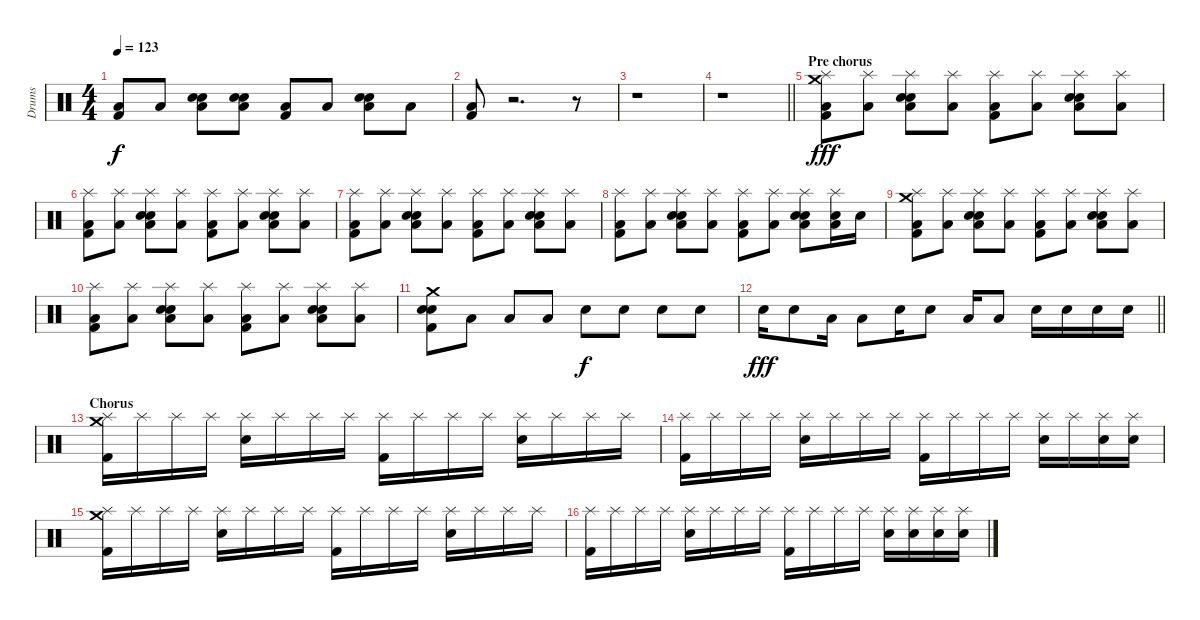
\track ("Drums" "Drums") {instrument percussion}
\staff {score}
\articulation defaults
\ts (4 4)
\tempo 123
\clef neutral
\ks c
("Low Floor Tom (hit)" "Kick (hit) 2").8{dy f} "Low Floor Tom (hit)".8 ("Electric Snare (hit)" "Electric Snare (hit)" "Low Floor Tom (hit)").8 ("Electric Snare (hit)" "Electric Snare (hit)" "Low Floor Tom (hit)").8 ("Low Floor Tom (hit)" "Kick (hit) 2").8 "Low Floor Tom (hit)".8 ("Electric Snare (hit)" "Electric Snare (hit)" "Low Floor Tom (hit)").8 "Low Floor Tom (hit)".8 |
("Low Floor Tom (hit)" "Kick (hit) 2").8 r.2{d} r.8 |
r.1 |
\barLineRight lightlight
r.1 |
\section ("" "Pre chorus")
("Crash medium (hit)" "Splash (hit)" "Low Floor Tom (hit)" "Kick (hit) 2").8{dy fff} ("Splash (hit)" "Low Floor Tom (hit)").8 ("Electric Snare (hit)" "Electric Snare (hit)" "Splash (hit)" "Low Floor Tom (hit)").8 ("Splash (hit)" "Low Floor Tom (hit)").8 ("Splash (hit)" "Low Floor Tom (hit)" "Kick (hit) 2").8 ("Splash (hit)" "Low Floor Tom (hit)").8 ("Electric Snare (hit)" "Electric Snare (hit)" "Splash (hit)" "Low Floor Tom (hit)").8 ("Splash (hit)" "Low Floor Tom (hit)").8 |
("Splash (hit)" "Low Floor Tom (hit)" "Kick (hit) 2").8 ("Splash (hit)" "Low Floor Tom (hit)").8 ("Electric Snare (hit)" "Electric Snare (hit)" "Splash (hit)" "Low Floor Tom (hit)").8 ("Splash (hit)" "Low Floor Tom (hit)").8 ("Splash (hit)" "Low Floor Tom (hit)" "Kick (hit) 2").8 ("Splash (hit)" "Low Floor Tom (hit)").8 ("Electric Snare (hit)" "Electric Snare (hit)" "Splash (hit)" "Low Floor Tom (hit)").8 ("Splash (hit)" "Low Floor Tom (hit)").8 |
("Splash (hit)" "Low Floor Tom (hit)" "Kick (hit) 2").8 ("Splash (hit)" "Low Floor Tom (hit)").8 ("Electric Snare (hit)" "Electric Snare (hit)" "Splash (hit)" "Low Floor Tom (hit)").8 ("Splash (hit)" "Low Floor Tom (hit)").8 ("Splash (hit)" "Low Floor Tom (hit)" "Kick (hit) 2").8 ("Splash (hit)" "Low Floor Tom (hit)").8 ("Electric Snare (hit)" "Electric Snare (hit)" "Splash (hit)" "Low Floor Tom (hit)").8 ("Splash (hit)" "Low Floor Tom (hit)").8 |
("Splash (hit)" "Low Floor Tom (hit)" "Kick (hit) 2").8 ("Splash (hit)" "Low Floor Tom (hit)").8 ("Electric Snare (hit)" "Electric Snare (hit)" "Splash (hit)" "Low Floor Tom (hit)").8 ("Splash (hit)" "Low Floor Tom (hit)").8 ("Splash (hit)" "Low Floor Tom (hit)" "Kick (hit) 2").8 ("Splash (hit)" "Low Floor Tom (hit)").8 ("Electric Snare (hit)" "Electric Snare (hit)" "Splash (hit)" "Low Floor Tom (hit)").8 ("Electric Snare (hit)" "Splash (hit)" "Low Floor Tom (hit)").16 "Electric Snare (hit)".16 |
("Crash medium (hit)" "Splash (hit)" "Low Floor Tom (hit)" "Kick (hit) 2").8 ("Splash (hit)" "Low Floor Tom (hit)").8 ("Electric Snare (hit)" "Electric Snare (hit)" "Splash (hit)" "Low Floor Tom (hit)").8 ("Splash (hit)" "Low Floor Tom (hit)").8 ("Splash (hit)" "Low Floor Tom (hit)" "Kick (hit) 2").8 ("Splash (hit)" "Low Floor Tom (hit)").8 ("Electric Snare (hit)" "Electric Snare (hit)" "Splash (hit)" "Low Floor Tom (hit)").8 ("Splash (hit)" "Low Floor Tom (hit)").8 |
("Splash (hit)" "Low Floor Tom (hit)" "Kick (hit) 2").8 ("Splash (hit)" "Low Floor Tom (hit)").8 ("Electric Snare (hit)" "Electric Snare (hit)" "Splash (hit)" "Low Floor Tom (hit)").8 ("Splash (hit)" "Low Floor Tom (hit)").8 ("Splash (hit)" "Low Floor Tom (hit)" "Kick (hit) 2").8 ("Splash (hit)" "Low Floor Tom (hit)").8 ("Electric Snare (hit)" "Electric Snare (hit)" "Splash (hit)" "Low Floor Tom (hit)").8 ("Splash (hit)" "Low Floor Tom (hit)").8 |
("Crash medium (hit)" "Electric Snare (hit)" "Electric Snare (hit)" "Kick (hit) 2").8 "Low Floor Tom (hit)".8 "Low Floor Tom (hit)".8 "Low Floor Tom (hit)".8 "Electric Snare (hit)".8{dy f} "Electric Snare (hit)".8 "Electric Snare (hit)".8 "Electric Snare (hit)".8 |
\barLineRight lightlight "Electric Snare (hit)".16{dy fff} "Electric Snare (hit)".8 "Low Floor Tom (hit)".16 "Low Floor Tom (hit)".8 "Electric Snare (hit)".16 "Electric Snare (hit)".8 "Low Floor Tom (hit)".16 "Low Floor Tom (hit)".8 "Electric Snare (hit)".16 "Electric Snare (hit)".16 "Electric Snare (hit)".16 "Electric Snare (hit)".16
|
\section ("" "Chorus")
("Crash medium (hit)" "Splash (hit)" "Kick (hit) 2").16 "Splash (hit)".16 "Splash (hit)".16 "Splash (hit)".16 ("Splash (hit)" "Electric Snare (hit)").16 "Splash (hit)".16 "Splash (hit)".16 "Splash (hit)".16 ("Splash (hit)" "Kick (hit) 2").16 "Splash (hit)".16 "Splash (hit)".16 "Splash (hit)".16 ("Splash (hit)" "Electric Snare (hit)").16 "Splash (hit)".16 "Splash (hit)".16 "Splash (hit)".16 |
("Splash (hit)" "Kick (hit) 2").16 "Splash (hit)".16 "Splash (hit)".16 "Splash (hit)".16 ("Splash (hit)" "Electric Snare (hit)").16 "Splash (hit)".16 "Splash (hit)".16 "Splash (hit)".16 ("Splash (hit)" "Kick (hit) 2").16 "Splash (hit)".16 "Splash (hit)".16 "Splash (hit)".16 ("Splash (hit)" "Electric Snare (hit)").16 "Splash (hit)".16 ("Splash (hit)" "Electric Snare (hit)").16 ("Splash (hit)" "Electric Snare (hit)").16 |
("Crash medium (hit)" "Splash (hit)" "Kick (hit) 2").16 "Splash (hit)".16 "Splash (hit)".16 "Splash (hit)".16 ("Splash (hit)" "Electric Snare (hit)").16 "Splash (hit)".16 "Splash (hit)".16 "Splash (hit)".16 ("Splash (hit)" "Kick (hit) 2").16 "Splash (hit)".16 "Splash (hit)".16 "Splash (hit)".16 ("Splash (hit)" "Electric Snare (hit)").16 "Splash (hit)".16 "Splash (hit)".16 "Splash (hit)".16 |
("Splash (hit)" "Kick (hit) 2").16 "Splash (hit)".16 "Splash (hit)".16 "Splash (hit)".16 ("Splash (hit)" "Electric Snare (hit)").16 "Splash (hit)".16 "Splash (hit)".16 "Splash (hit)".16 ("Splash (hit)" "Kick (hit) 2").16 "Splash (hit)".16 "Splash (hit)".16 "Splash (hit)".16 ("Splash (hit)" "Electric Snare (hit)").16 ("Splash (hit)" "Electric Snare (hit)").16 ("Splash (hit)" "Electric Snare (hit)").16 ("Splash (hit)" "Electric Snare (hit)").16
